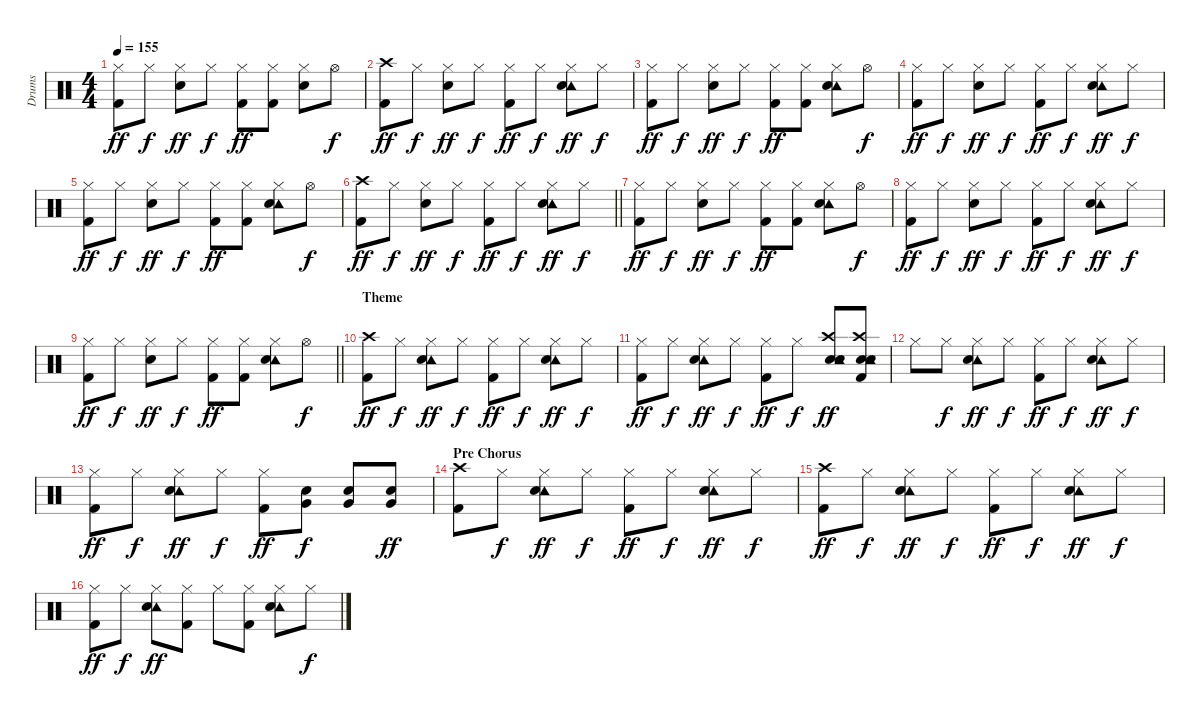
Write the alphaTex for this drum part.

\track ("Drums" "Drums") {instrument percussion}
\staff {score}
\articulation defaults
\ts (4 4)
\tempo 155
\clef neutral
\ks c
("Hi-Hat (closed)" "Kick (hit) 2").8{dy ff} "Hi-Hat (closed)".8{dy f} ("Hi-Hat (closed)" "Snare (hit) 2").8{dy ff} "Hi-Hat (closed)".8{dy f} ("Hi-Hat (closed)" "Kick (hit) 2").8{dy ff} ("Hi-Hat (closed)" "Kick (hit) 2").8 ("Hi-Hat (closed)" "Snare (hit) 2").8 "Hi-Hat (open)".8{dy f} |
("Crash high (hit)" "Kick (hit) 2").8{dy ff} "Hi-Hat (closed)".8{dy f} ("Hi-Hat (closed)" "Snare (hit) 2").8{dy ff} "Hi-Hat (closed)".8{dy f} ("Hi-Hat (closed)" "Kick (hit) 2").8{dy ff} "Hi-Hat (closed)".8{dy f} ("Tambourine (hit)" "Hi-Hat (closed)" "Snare (hit) 2").8{dy ff} "Hi-Hat (closed)".8{dy f} |
("Hi-Hat (closed)" "Kick (hit) 2").8{dy ff} "Hi-Hat (closed)".8{dy f} ("Hi-Hat (closed)" "Snare (hit) 2").8{dy ff} "Hi-Hat (closed)".8{dy f} ("Hi-Hat (closed)" "Kick (hit) 2").8{dy ff} ("Hi-Hat (closed)" "Kick (hit) 2").8 ("Tambourine (hit)" "Hi-Hat (closed)" "Snare (hit) 2").8 "Hi-Hat (open)".8{dy f} |
("Hi-Hat (closed)" "Kick (hit) 2").8{dy ff} "Hi-Hat (closed)".8{dy f} ("Hi-Hat (closed)" "Snare (hit) 2").8{dy ff} "Hi-Hat (closed)".8{dy f} ("Hi-Hat (closed)" "Kick (hit) 2").8{dy ff} "Hi-Hat (closed)".8{dy f} ("Tambourine (hit)" "Hi-Hat (closed)" "Snare (hit) 2").8{dy ff} "Hi-Hat (closed)".8{dy f} |
("Hi-Hat (closed)" "Kick (hit) 2").8{dy ff} "Hi-Hat (closed)".8{dy f} ("Hi-Hat (closed)" "Snare (hit) 2").8{dy ff} "Hi-Hat (closed)".8{dy f} ("Hi-Hat (closed)" "Kick (hit) 2").8{dy ff} ("Hi-Hat (closed)" "Kick (hit) 2").8 ("Tambourine (hit)" "Hi-Hat (closed)" "Snare (hit) 2").8 "Hi-Hat (open)".8{dy f} |
\barLineRight lightlight
("Crash high (hit)" "Kick (hit) 2").8{dy ff} "Hi-Hat (closed)".8{dy f} ("Hi-Hat (closed)" "Snare (hit) 2").8{dy ff} "Hi-Hat (closed)".8{dy f} ("Hi-Hat (closed)" "Kick (hit) 2").8{dy ff} "Hi-Hat (closed)".8{dy f} ("Tambourine (hit)" "Hi-Hat (closed)" "Snare (hit) 2").8{dy ff} "Hi-Hat (closed)".8{dy f} |
("Hi-Hat (closed)" "Kick (hit) 2").8{dy ff} "Hi-Hat (closed)".8{dy f} ("Hi-Hat (closed)" "Snare (hit) 2").8{dy ff} "Hi-Hat (closed)".8{dy f} ("Hi-Hat (closed)" "Kick (hit) 2").8{dy ff} ("Hi-Hat (closed)" "Kick (hit) 2").8 ("Tambourine (hit)" "Hi-Hat (closed)" "Snare (hit) 2").8 "Hi-Hat (open)".8{dy f} |
("Hi-Hat (closed)" "Kick (hit) 2").8{dy ff} "Hi-Hat (closed)".8{dy f} ("Hi-Hat (closed)" "Snare (hit) 2").8{dy ff} "Hi-Hat (closed)".8{dy f} ("Hi-Hat (closed)" "Kick (hit) 2").8{dy ff} "Hi-Hat (closed)".8{dy f} ("Tambourine (hit)" "Hi-Hat (closed)" "Snare (hit) 2").8{dy ff} "Hi-Hat (closed)".8{dy f} |
\barLineRight lightlight
("Hi-Hat (closed)" "Kick (hit) 2").8{dy ff} "Hi-Hat (closed)".8{dy f} ("Hi-Hat (closed)" "Snare (hit) 2").8{dy ff} "Hi-Hat (closed)".8{dy f} ("Hi-Hat (closed)" "Kick (hit) 2").8{dy ff} ("Hi-Hat (closed)" "Kick (hit) 2").8 ("Tambourine (hit)" "Hi-Hat (closed)" "Snare (hit) 2").8 "Hi-Hat (open)".8{dy f} |
\section ("" "Theme")
("Crash high (hit)" "Kick (hit) 2").8{dy ff} "Hi-Hat (closed)".8{dy f} ("Tambourine (hit)" "Hi-Hat (closed)" "Snare (hit) 2").8{dy ff} "Hi-Hat (closed)".8{dy f} ("Hi-Hat (closed)" "Kick (hit) 2").8{dy ff} "Hi-Hat (closed)".8{dy f} ("Tambourine (hit)" "Hi-Hat (closed)" "Snare (hit) 2").8{dy ff} "Hi-Hat (closed)".8{dy f} |
("Hi-Hat (closed)" "Kick (hit) 2").8{dy ff} "Hi-Hat (closed)".8{dy f} ("Tambourine (hit)" "Hi-Hat (closed)" "Snare (hit) 2").8{dy ff} "Hi-Hat (closed)".8{dy f} ("Hi-Hat (closed)" "Kick (hit) 2").8{dy ff} "Hi-Hat (closed)".8{dy f} ("Hand Clap (hit)" "Tambourine (hit)" "Crash high (hit)" "Snare (hit) 2").8{dy ff} ("Hand Clap (hit)" "Tambourine (hit)" "Crash high (hit)" "Snare (hit) 2" "Kick (hit) 2").8 |
"Hi-Hat (closed)".8 "Hi-Hat (closed)".8{dy f} ("Tambourine (hit)" "Hi-Hat (closed)" "Snare (hit) 2").8{dy ff} "Hi-Hat (closed)".8{dy f} ("Hi-Hat (closed)" "Kick (hit) 2").8{dy ff} "Hi-Hat (closed)".8{dy f} ("Tambourine (hit)" "Hi-Hat (closed)" "Snare (hit) 2").8{dy ff} "Hi-Hat (closed)".8{dy f} |
("Hi-Hat (closed)" "Kick (hit) 2").8{dy ff} "Hi-Hat (closed)".8{dy f} ("Tambourine (hit)" "Hi-Hat (closed)" "Snare (hit) 2").8{dy ff} "Hi-Hat (closed)".8{dy f} ("Hi-Hat (closed)" "Kick (hit) 2").8{dy ff} ("Very Low Tom (hit)" "Snare (hit) 2").8{dy f} ("Very Low Tom (hit)" "Snare (hit) 2").8 ("Very Low Tom (hit)" "Snare (hit) 2").8{dy ff} |
\section ("" "Pre Chorus")
("Crash high (hit)" "Kick (hit) 2").8 "Hi-Hat (closed)".8{dy f} ("Tambourine (hit)" "Hi-Hat (closed)" "Snare (hit) 2").8{dy ff} "Hi-Hat (closed)".8{dy f} ("Hi-Hat (closed)" "Kick (hit) 2").8{dy ff} "Hi-Hat (closed)".8{dy f} ("Tambourine (hit)" "Hi-Hat (closed)" "Snare (hit) 2").8{dy ff} "Hi-Hat (closed)".8{dy f} |
("Crash high (hit)" "Kick (hit) 2").8{dy ff} "Hi-Hat (closed)".8{dy f} ("Tambourine (hit)" "Hi-Hat (closed)" "Snare (hit) 2").8{dy ff} "Hi-Hat (closed)".8{dy f} ("Hi-Hat (closed)" "Kick (hit) 2").8{dy ff} "Hi-Hat (closed)".8{dy f} ("Tambourine (hit)" "Hi-Hat (closed)" "Snare (hit) 2").8{dy ff} "Hi-Hat (closed)".8{dy f} |
("Hi-Hat (closed)" "Kick (hit) 2").8{dy ff} "Hi-Hat (closed)".8{dy f} ("Tambourine (hit)" "Hi-Hat (closed)" "Snare (hit) 2").8{dy ff} ("Hi-Hat (closed)" "Kick (hit) 2").8 "Hi-Hat (closed)".8 ("Hi-Hat (closed)" "Kick (hit) 2").8 ("Tambourine (hit)" "Hi-Hat (closed)" "Snare (hit) 2").8 "Hi-Hat (closed)".8{dy f}
